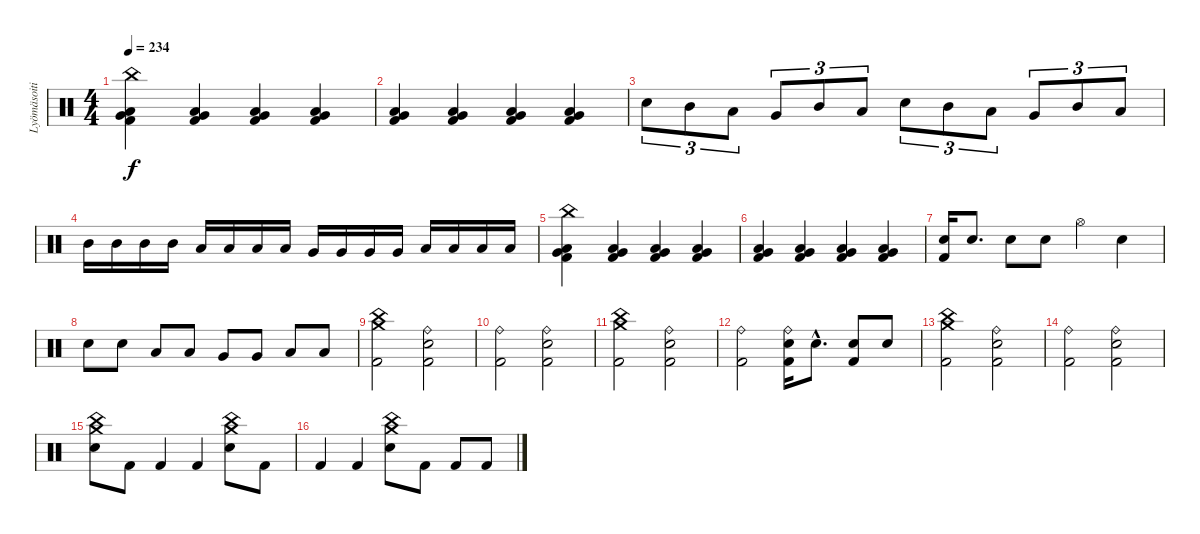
\track ("Lyömäsoitin" "Lyömäsoiti") {instrument percussion}
\staff {score}
\articulation defaults
\ts (4 4)
\tempo 234
\clef neutral
\ks c
("China (hit)" "Low Tom (hit)" "Very Low Tom (hit)" "Kick (hit) 2").4{dy f} ("Low Tom (hit)" "Very Low Tom (hit)" "Kick (hit) 2").4 ("Low Tom (hit)" "Very Low Tom (hit)" "Kick (hit) 2").4 ("Low Tom (hit)" "Very Low Tom (hit)" "Kick (hit) 2").4 |
("Low Tom (hit)" "Very Low Tom (hit)" "Kick (hit) 2").4 ("Low Tom (hit)" "Very Low Tom (hit)" "Kick (hit) 2").4 ("Low Tom (hit)" "Very Low Tom (hit)" "Kick (hit) 2").4 ("Low Tom (hit)" "Very Low Tom (hit)" "Kick (hit) 2").4 |
"Snare (hit) 2".8{tu (3 2)} "Mid Tom (hit)".8{tu (3 2)} "Low Tom (hit)".8{tu (3 2)} "Very Low Tom (hit)".8{tu (3 2)} "Mid Tom (hit)".8{tu (3 2)} "Low Tom (hit)".8{tu (3 2)} "Snare (hit) 2".8{tu (3 2)} "Mid Tom (hit)".8{tu (3 2)} "Low Tom (hit)".8{tu (3 2)} "Very Low Tom (hit)".8{tu (3 2)} "Mid Tom (hit)".8{tu (3 2)} "Low Tom (hit)".8{tu (3 2)} |
"Mid Tom (hit)".16 "Mid Tom (hit)".16 "Mid Tom (hit)".16 "Mid Tom (hit)".16 "Low Tom (hit)".16 "Low Tom (hit)".16 "Low Tom (hit)".16 "Low Tom (hit)".16 "Very Low Tom (hit)".16 "Very Low Tom (hit)".16 "Very Low Tom (hit)".16 "Very Low Tom (hit)".16 "Low Floor Tom (hit)".16 "Low Floor Tom (hit)".16 "Low Floor Tom (hit)".16 "Low Floor Tom (hit)".16 |
("China (hit)" "Low Tom (hit)" "Very Low Tom (hit)" "Kick (hit) 2").4 ("Low Tom (hit)" "Very Low Tom (hit)" "Kick (hit) 2").4 ("Low Tom (hit)" "Very Low Tom (hit)" "Kick (hit) 2").4 ("Low Tom (hit)" "Very Low Tom (hit)" "Kick (hit) 2").4 |
("Low Tom (hit)" "Very Low Tom (hit)" "Kick (hit) 2").4 ("Low Tom (hit)" "Very Low Tom (hit)" "Kick (hit) 2").4 ("Low Tom (hit)" "Very Low Tom (hit)" "Kick (hit) 2").4 ("Low Tom (hit)" "Very Low Tom (hit)" "Kick (hit) 2").4 |
("Electric Snare (hit)" "Kick (hit) 2").16 "Electric Snare (hit)".8{d} "Electric Snare (hit)".8 "Electric Snare (hit)".8 "Hi-Hat (open)".4 "Electric Snare (hit)".4 |
"Electric Snare (hit)".8 "Electric Snare (hit)".8 "Low Tom (hit)".8 "Low Tom (hit)".8 "Very Low Tom (hit)".8 "Very Low Tom (hit)".8 "Low Floor Tom (hit)".8 "Low Floor Tom (hit)".8 |
("Crash medium (hit)" "China (hit)" "Kick (hit) 2").2 ("Ride (bell)" "Electric Snare (hit)" "Kick (hit) 2").2 |
("Ride (bell)" "Kick (hit) 2").2 ("Ride (bell)" "Electric Snare (hit)" "Kick (hit) 2").2 |
("Crash medium (hit)" "China (hit)" "Kick (hit) 2").2 ("Ride (bell)" "Electric Snare (hit)" "Kick (hit) 2").2 |
("Ride (bell)" "Kick (hit) 2").2 ("Ride (bell)" "Electric Snare (hit)" "Kick (hit) 2").16 "Electric Snare (hit)"{hac}.8{d} ("Electric Snare (hit)" "Kick (hit) 2").8 "Electric Snare (hit)".8 |
("Crash medium (hit)" "China (hit)" "Kick (hit) 2").2 ("Ride (bell)" "Electric Snare (hit)" "Kick (hit) 2").2 |
("Ride (bell)" "Kick (hit) 2").2 ("Ride (bell)" "Electric Snare (hit)" "Kick (hit) 2").2 |
("Crash medium (hit)" "China (hit)" "Electric Snare (hit)").8 "Kick (hit) 2".8 "Kick (hit) 2".4 "Kick (hit) 2".4 ("Crash medium (hit)" "China (hit)" "Electric Snare (hit)").8 "Kick (hit) 2".8 |
"Kick (hit) 2".4 "Kick (hit) 2".4 ("Crash medium (hit)" "China (hit)" "Electric Snare (hit)").8 "Kick (hit) 2".8 "Kick (hit) 2".8 "Kick (hit) 2".8
